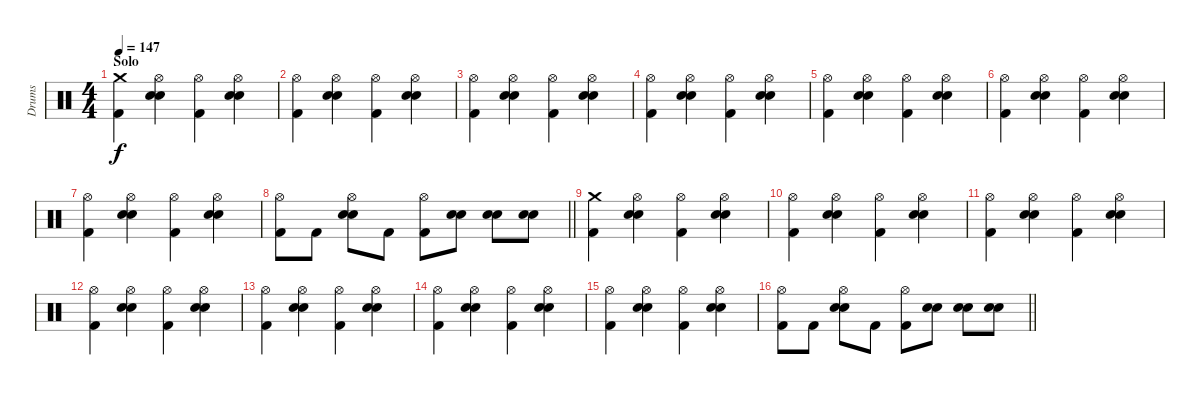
\track ("Drums" "Drums") {instrument percussion}
\staff {score}
\articulation defaults
\ts (4 4)
\section ("" "Solo")
\tempo 147
\clef neutral
\ks c
("Crash medium (hit)" "Kick (hit) 2").4{dy f} ("Hi-Hat (open)" "Electric Snare (hit)" "Snare (hit) 2").4 ("Hi-Hat (open)" "Kick (hit) 2").4 ("Hi-Hat (open)" "Electric Snare (hit)" "Snare (hit) 2").4 |
("Hi-Hat (open)" "Kick (hit) 2").4 ("Hi-Hat (open)" "Electric Snare (hit)" "Snare (hit) 2").4 ("Hi-Hat (open)" "Kick (hit) 2").4 ("Hi-Hat (open)" "Electric Snare (hit)" "Snare (hit) 2").4 |
("Hi-Hat (open)" "Kick (hit) 2").4 ("Hi-Hat (open)" "Electric Snare (hit)" "Snare (hit) 2").4 ("Hi-Hat (open)" "Kick (hit) 2").4 ("Hi-Hat (open)" "Electric Snare (hit)" "Snare (hit) 2").4 |
("Hi-Hat (open)" "Kick (hit) 2").4 ("Hi-Hat (open)" "Electric Snare (hit)" "Snare (hit) 2").4 ("Hi-Hat (open)" "Kick (hit) 2").4 ("Hi-Hat (open)" "Electric Snare (hit)" "Snare (hit) 2").4 |
("Hi-Hat (open)" "Kick (hit) 2").4 ("Hi-Hat (open)" "Electric Snare (hit)" "Snare (hit) 2").4 ("Hi-Hat (open)" "Kick (hit) 2").4 ("Hi-Hat (open)" "Electric Snare (hit)" "Snare (hit) 2").4 |
("Hi-Hat (open)" "Kick (hit) 2").4 ("Hi-Hat (open)" "Electric Snare (hit)" "Snare (hit) 2").4 ("Hi-Hat (open)" "Kick (hit) 2").4 ("Hi-Hat (open)" "Electric Snare (hit)" "Snare (hit) 2").4 |
("Hi-Hat (open)" "Kick (hit) 2").4 ("Hi-Hat (open)" "Electric Snare (hit)" "Snare (hit) 2").4 ("Hi-Hat (open)" "Kick (hit) 2").4 ("Hi-Hat (open)" "Electric Snare (hit)" "Snare (hit) 2").4 |
\barLineRight lightlight
("Hi-Hat (open)" "Kick (hit) 2").8 "Kick (hit) 2".8 ("Hi-Hat (open)" "Electric Snare (hit)" "Snare (hit) 2").8 "Kick (hit) 2".8 ("Hi-Hat (open)" "Kick (hit) 2").8 ("Electric Snare (hit)" "Snare (hit) 2").8 ("Electric Snare (hit)" "Snare (hit) 2").8 ("Electric Snare (hit)" "Snare (hit) 2").8 |
\section ("" "")
("Crash medium (hit)" "Kick (hit) 2").4 ("Hi-Hat (open)" "Electric Snare (hit)" "Snare (hit) 2").4 ("Hi-Hat (open)" "Kick (hit) 2").4 ("Hi-Hat (open)" "Electric Snare (hit)" "Snare (hit) 2").4 |
("Hi-Hat (open)" "Kick (hit) 2").4 ("Hi-Hat (open)" "Electric Snare (hit)" "Snare (hit) 2").4 ("Hi-Hat (open)" "Kick (hit) 2").4 ("Hi-Hat (open)" "Electric Snare (hit)" "Snare (hit) 2").4 |
("Hi-Hat (open)" "Kick (hit) 2").4 ("Hi-Hat (open)" "Electric Snare (hit)" "Snare (hit) 2").4 ("Hi-Hat (open)" "Kick (hit) 2").4 ("Hi-Hat (open)" "Electric Snare (hit)" "Snare (hit) 2").4 |
("Hi-Hat (open)" "Kick (hit) 2").4 ("Hi-Hat (open)" "Electric Snare (hit)" "Snare (hit) 2").4 ("Hi-Hat (open)" "Kick (hit) 2").4 ("Hi-Hat (open)" "Electric Snare (hit)" "Snare (hit) 2").4 |
("Hi-Hat (open)" "Kick (hit) 2").4 ("Hi-Hat (open)" "Electric Snare (hit)" "Snare (hit) 2").4 ("Hi-Hat (open)" "Kick (hit) 2").4 ("Hi-Hat (open)" "Electric Snare (hit)" "Snare (hit) 2").4 |
("Hi-Hat (open)" "Kick (hit) 2").4 ("Hi-Hat (open)" "Electric Snare (hit)" "Snare (hit) 2").4 ("Hi-Hat (open)" "Kick (hit) 2").4 ("Hi-Hat (open)" "Electric Snare (hit)" "Snare (hit) 2").4 |
("Hi-Hat (open)" "Kick (hit) 2").4 ("Hi-Hat (open)" "Electric Snare (hit)" "Snare (hit) 2").4 ("Hi-Hat (open)" "Kick (hit) 2").4 ("Hi-Hat (open)" "Electric Snare (hit)" "Snare (hit) 2").4 |
\barLineRight lightlight
("Hi-Hat (open)" "Kick (hit) 2").8 "Kick (hit) 2".8 ("Hi-Hat (open)" "Electric Snare (hit)" "Snare (hit) 2").8 "Kick (hit) 2".8 ("Hi-Hat (open)" "Kick (hit) 2").8 ("Electric Snare (hit)" "Snare (hit) 2").8 ("Electric Snare (hit)" "Snare (hit) 2").8 ("Electric Snare (hit)" "Snare (hit) 2").8
